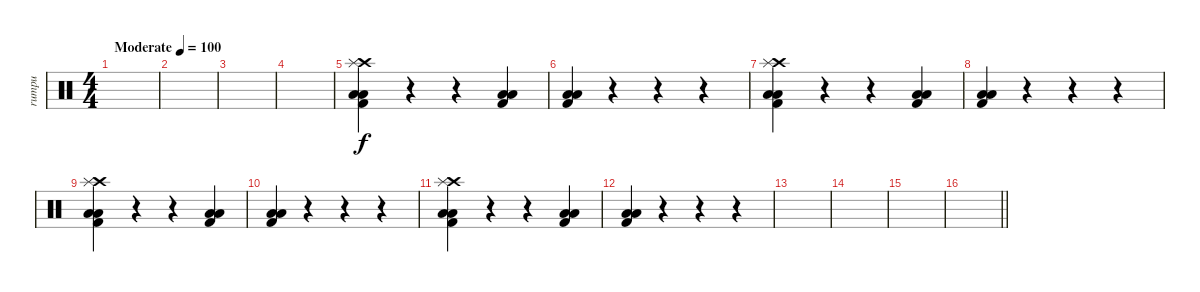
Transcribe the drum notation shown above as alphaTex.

\track ("rumpu" "rumpu") {instrument percussion}
\staff {score}
\articulation defaults
\ts (4 4)
\tempo (100 "Moderate")
\clef neutral
\ks c
|
|
|
|
("Kick (hit) 2" "Low Tom (hit)" "Low Floor Tom (hit)" "Crash high (hit)" "Splash (hit)").4 r.4 r.4 ("Kick (hit) 2" "Low Tom (hit)" "Low Floor Tom (hit)").4 |
("Kick (hit) 2" "Low Tom (hit)" "Low Floor Tom (hit)").4 r.4 r.4 r.4 |
("Kick (hit) 2" "Low Tom (hit)" "Low Floor Tom (hit)" "Crash high (hit)" "Splash (hit)").4 r.4 r.4 ("Kick (hit) 2" "Low Tom (hit)" "Low Floor Tom (hit)").4 |
("Kick (hit) 2" "Low Tom (hit)" "Low Floor Tom (hit)").4 r.4 r.4 r.4 |
("Kick (hit) 2" "Low Tom (hit)" "Low Floor Tom (hit)" "Crash high (hit)" "Splash (hit)").4 r.4 r.4 ("Kick (hit) 2" "Low Tom (hit)" "Low Floor Tom (hit)").4 |
("Kick (hit) 2" "Low Tom (hit)" "Low Floor Tom (hit)").4 r.4 r.4 r.4 |
("Kick (hit) 2" "Low Tom (hit)" "Low Floor Tom (hit)" "Crash high (hit)" "Splash (hit)").4 r.4 r.4 ("Kick (hit) 2" "Low Tom (hit)" "Low Floor Tom (hit)").4 |
("Kick (hit) 2" "Low Tom (hit)" "Low Floor Tom (hit)").4 r.4 r.4 r.4 |
|
|
|
\barLineRight lightlight
